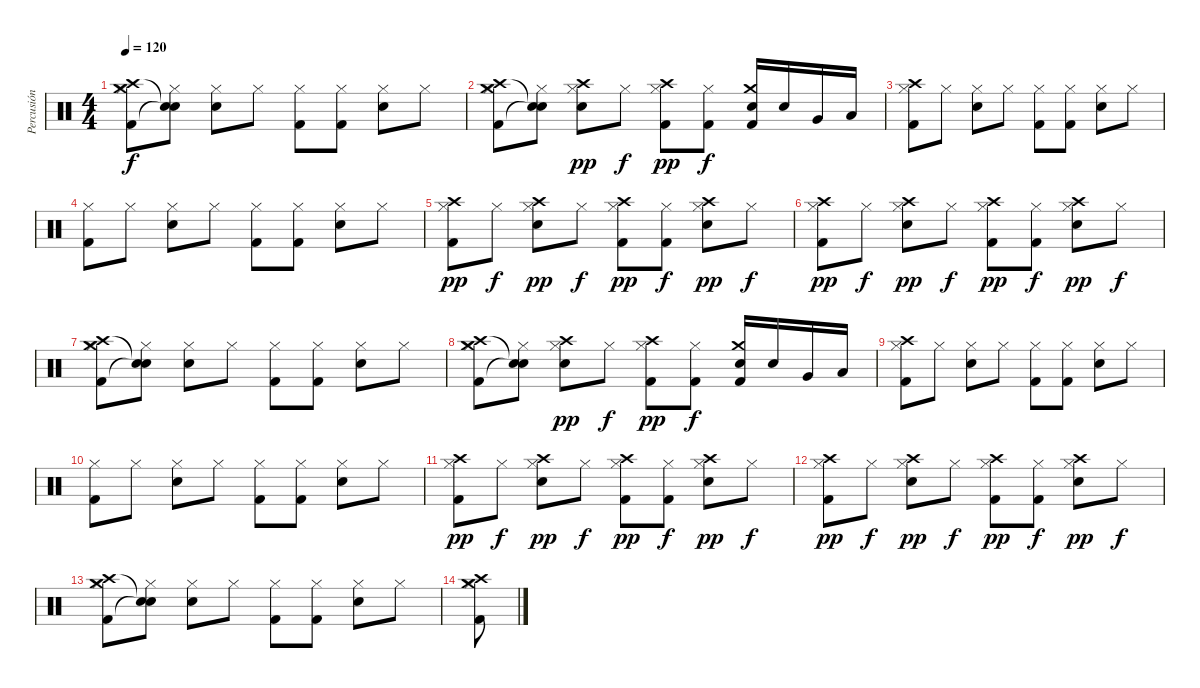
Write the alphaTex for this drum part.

\track ("Percusión" "Percusión") {instrument percussion}
\staff {score}
\articulation defaults
\ts (4 4)
\tempo 120
\clef neutral
\ks c
("Hi-Hat (closed)" "Kick (hit) 2" "Crash high (hit)" "Crash medium (hit)").8{dy f} ("Hi-Hat (closed)" "Snare (hit)"{t} "Snare (hit)"{t}).8 ("Hi-Hat (closed)" "Electric Snare (hit)").8 "Hi-Hat (closed)".8 ("Hi-Hat (closed)" "Kick (hit) 2").8 ("Hi-Hat (closed)" "Kick (hit) 2").8 ("Hi-Hat (closed)" "Electric Snare (hit)").8 "Hi-Hat (closed)".8 |
("Hi-Hat (closed)" "Kick (hit) 2" "Crash high (hit)" "Crash medium (hit)").8 ("Hi-Hat (closed)" "Snare (hit)"{t} "Snare (hit)"{t}).8 ("Hi-Hat (closed)" "Electric Snare (hit)" "Crash high (hit)").8{dy pp} "Hi-Hat (closed)".8{dy f} ("Hi-Hat (closed)" "Kick (hit) 2" "Crash high (hit)").8{dy pp} ("Hi-Hat (closed)" "Kick (hit) 2").8{dy f} ("Electric Snare (hit)" "Kick (hit) 2" "Crash medium (hit)").16 "Electric Snare (hit)".16 "Very Low Tom (hit)".16 "Low Floor Tom (hit)".16 |
("Hi-Hat (closed)" "Kick (hit) 2" "Crash high (hit)").8 "Hi-Hat (closed)".8 ("Hi-Hat (closed)" "Electric Snare (hit)").8 "Hi-Hat (closed)".8 ("Hi-Hat (closed)" "Kick (hit) 2").8 ("Hi-Hat (closed)" "Kick (hit) 2").8 ("Hi-Hat (closed)" "Electric Snare (hit)").8 "Hi-Hat (closed)".8 |
("Hi-Hat (closed)" "Kick (hit) 2").8 "Hi-Hat (closed)".8 ("Hi-Hat (closed)" "Electric Snare (hit)").8 "Hi-Hat (closed)".8 ("Hi-Hat (closed)" "Kick (hit) 2").8 ("Hi-Hat (closed)" "Kick (hit) 2").8 ("Hi-Hat (closed)" "Electric Snare (hit)").8 "Hi-Hat (closed)".8 |
("Hi-Hat (closed)" "Kick (hit) 2" "Crash high (hit)").8{dy pp} "Hi-Hat (closed)".8{dy f} ("Hi-Hat (closed)" "Electric Snare (hit)" "Crash high (hit)").8{dy pp} "Hi-Hat (closed)".8{dy f} ("Hi-Hat (closed)" "Kick (hit) 2" "Crash high (hit)").8{dy pp} ("Hi-Hat (closed)" "Kick (hit) 2").8{dy f} ("Hi-Hat (closed)" "Electric Snare (hit)" "Crash high (hit)").8{dy pp} "Hi-Hat (closed)".8{dy f} |
("Hi-Hat (closed)" "Kick (hit) 2" "Crash high (hit)").8{dy pp} "Hi-Hat (closed)".8{dy f} ("Hi-Hat (closed)" "Electric Snare (hit)" "Crash high (hit)").8{dy pp} "Hi-Hat (closed)".8{dy f} ("Hi-Hat (closed)" "Kick (hit) 2" "Crash high (hit)").8{dy pp} ("Hi-Hat (closed)" "Kick (hit) 2").8{dy f} ("Hi-Hat (closed)" "Electric Snare (hit)" "Crash high (hit)").8{dy pp} "Hi-Hat (closed)".8{dy f} |
("Hi-Hat (closed)" "Kick (hit) 2" "Crash high (hit)" "Crash medium (hit)").8 ("Hi-Hat (closed)" "Snare (hit)"{t} "Snare (hit)"{t}).8 ("Hi-Hat (closed)" "Electric Snare (hit)").8 "Hi-Hat (closed)".8 ("Hi-Hat (closed)" "Kick (hit) 2").8 ("Hi-Hat (closed)" "Kick (hit) 2").8 ("Hi-Hat (closed)" "Electric Snare (hit)").8 "Hi-Hat (closed)".8 |
("Hi-Hat (closed)" "Kick (hit) 2" "Crash high (hit)" "Crash medium (hit)").8 ("Hi-Hat (closed)" "Snare (hit)"{t} "Snare (hit)"{t}).8 ("Hi-Hat (closed)" "Electric Snare (hit)" "Crash high (hit)").8{dy pp} "Hi-Hat (closed)".8{dy f} ("Hi-Hat (closed)" "Kick (hit) 2" "Crash high (hit)").8{dy pp} ("Hi-Hat (closed)" "Kick (hit) 2").8{dy f} ("Electric Snare (hit)" "Kick (hit) 2" "Crash medium (hit)").16 "Electric Snare (hit)".16 "Very Low Tom (hit)".16 "Low Floor Tom (hit)".16 |
("Hi-Hat (closed)" "Kick (hit) 2" "Crash high (hit)").8 "Hi-Hat (closed)".8 ("Hi-Hat (closed)" "Electric Snare (hit)").8 "Hi-Hat (closed)".8 ("Hi-Hat (closed)" "Kick (hit) 2").8 ("Hi-Hat (closed)" "Kick (hit) 2").8 ("Hi-Hat (closed)" "Electric Snare (hit)").8 "Hi-Hat (closed)".8 |
("Hi-Hat (closed)" "Kick (hit) 2").8 "Hi-Hat (closed)".8 ("Hi-Hat (closed)" "Electric Snare (hit)").8 "Hi-Hat (closed)".8 ("Hi-Hat (closed)" "Kick (hit) 2").8 ("Hi-Hat (closed)" "Kick (hit) 2").8 ("Hi-Hat (closed)" "Electric Snare (hit)").8 "Hi-Hat (closed)".8 |
("Hi-Hat (closed)" "Kick (hit) 2" "Crash high (hit)").8{dy pp} "Hi-Hat (closed)".8{dy f} ("Hi-Hat (closed)" "Electric Snare (hit)" "Crash high (hit)").8{dy pp} "Hi-Hat (closed)".8{dy f} ("Hi-Hat (closed)" "Kick (hit) 2" "Crash high (hit)").8{dy pp} ("Hi-Hat (closed)" "Kick (hit) 2").8{dy f} ("Hi-Hat (closed)" "Electric Snare (hit)" "Crash high (hit)").8{dy pp} "Hi-Hat (closed)".8{dy f} |
("Hi-Hat (closed)" "Kick (hit) 2" "Crash high (hit)").8{dy pp} "Hi-Hat (closed)".8{dy f} ("Hi-Hat (closed)" "Electric Snare (hit)" "Crash high (hit)").8{dy pp} "Hi-Hat (closed)".8{dy f} ("Hi-Hat (closed)" "Kick (hit) 2" "Crash high (hit)").8{dy pp} ("Hi-Hat (closed)" "Kick (hit) 2").8{dy f} ("Hi-Hat (closed)" "Electric Snare (hit)" "Crash high (hit)").8{dy pp} "Hi-Hat (closed)".8{dy f} |
("Hi-Hat (closed)" "Kick (hit) 2" "Crash high (hit)" "Crash medium (hit)").8 ("Hi-Hat (closed)" "Snare (hit)"{t} "Snare (hit)"{t}).8 ("Hi-Hat (closed)" "Electric Snare (hit)").8 "Hi-Hat (closed)".8 ("Hi-Hat (closed)" "Kick (hit) 2").8 ("Hi-Hat (closed)" "Kick (hit) 2").8 ("Hi-Hat (closed)" "Electric Snare (hit)").8 "Hi-Hat (closed)".8 |
("Hi-Hat (closed)" "Kick (hit) 2" "Crash high (hit)" "Crash medium (hit)").8
